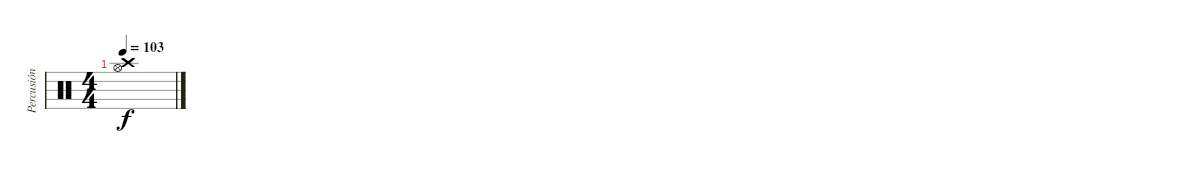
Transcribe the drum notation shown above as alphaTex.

\track ("Percusión" "Percusión") {instrument percussion}
\staff {score}
\articulation defaults
\ts (4 4)
\tempo 103
\clef neutral
\ks c
("Hi-Hat (open)" "Crash high (hit)").1{dy f}
